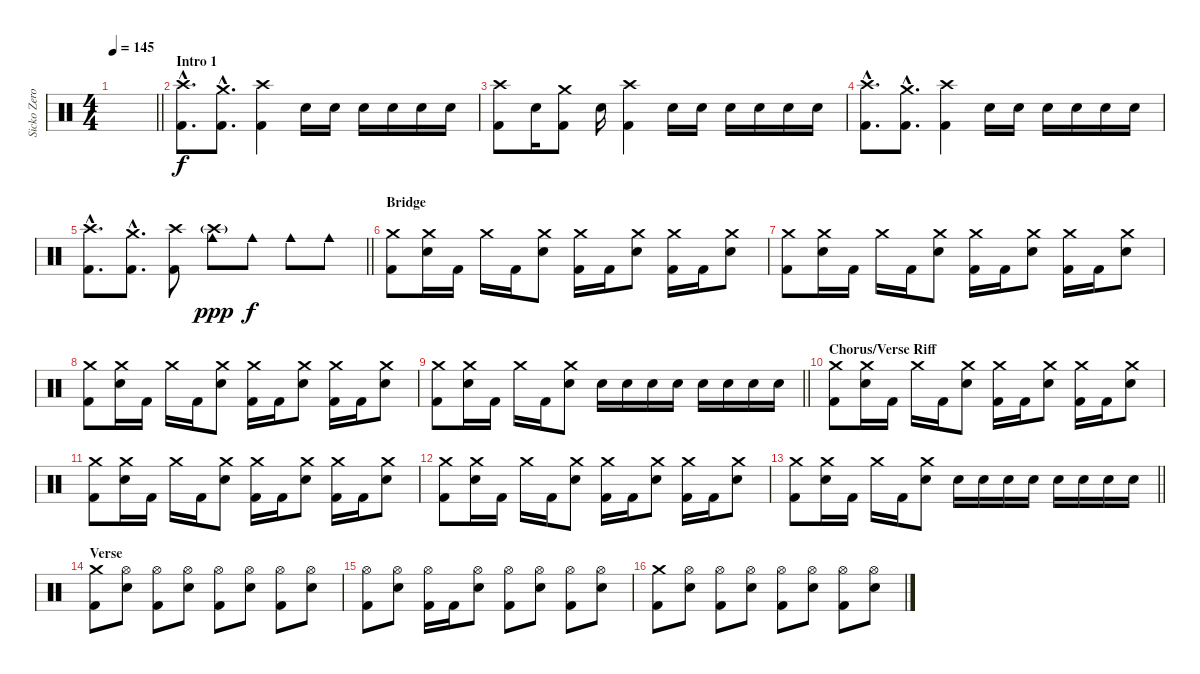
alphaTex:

\track ("Sicko Zero - Drums" "Sicko Zero") {instrument percussion}
\staff {score}
\articulation defaults
\ts (4 4)
\tempo 145
\clef neutral
\barLineRight lightlight
\ks c
|
\section ("" "Intro 1")
("Crash high (hit)"{hac} "Kick (hit) 2"{hac}).8{d} ("Crash medium (hit)"{hac} "Kick (hit) 2"{hac}).8{d} ("Crash high (hit)" "Kick (hit) 2").4 "Electric Snare (hit)".16 "Electric Snare (hit)".16 "Electric Snare (hit)".16 "Electric Snare (hit)".16 "Electric Snare (hit)".16 "Electric Snare (hit)".16 |
("Crash high (hit)" "Kick (hit) 2").8 "Electric Snare (hit)".16 ("Crash medium (hit)" "Kick (hit) 2").8 "Electric Snare (hit)".16 ("Crash high (hit)" "Kick (hit) 2").4 "Electric Snare (hit)".16 "Electric Snare (hit)".16 "Electric Snare (hit)".16 "Electric Snare (hit)".16 "Electric Snare (hit)".16 "Electric Snare (hit)".16 |
("Crash high (hit)"{hac} "Kick (hit) 2"{hac}).8{d} ("Crash medium (hit)"{hac} "Kick (hit) 2"{hac}).8{d} ("Crash high (hit)" "Kick (hit) 2").4 "Electric Snare (hit)".16 "Electric Snare (hit)".16 "Electric Snare (hit)".16 "Electric Snare (hit)".16 "Electric Snare (hit)".16 "Electric Snare (hit)".16 |
\barLineRight lightlight
("Crash high (hit)"{hac} "Kick (hit) 2"{hac}).8{d} ("Crash medium (hit)"{hac} "Kick (hit) 2"{hac}).8{d} ("Crash high (hit)" "Kick (hit) 2").8 ("Crash high (hit)"{g} "Cowbell medium (hit)").8{dy ppp} "Cowbell medium (hit)".8{dy f} "Cowbell medium (hit)".8 "Cowbell medium (hit)".8 |
\section ("" "Bridge")
("Crash medium (hit)" "Kick (hit) 2").8 ("Crash medium (hit)" "Electric Snare (hit)").16 "Kick (hit) 2".16 "Crash medium (hit)".16 "Kick (hit) 2".16 ("Crash medium (hit)" "Electric Snare (hit)").8 ("Crash medium (hit)" "Kick (hit) 2").16 "Kick (hit) 2".16 ("Crash medium (hit)" "Electric Snare (hit)").8 ("Crash medium (hit)" "Kick (hit) 2").16 "Kick (hit) 2".16 ("Crash medium (hit)" "Electric Snare (hit)").8 |
("Crash medium (hit)" "Kick (hit) 2").8 ("Crash medium (hit)" "Electric Snare (hit)").16 "Kick (hit) 2".16 "Crash medium (hit)".16 "Kick (hit) 2".16 ("Crash medium (hit)" "Electric Snare (hit)").8 ("Crash medium (hit)" "Kick (hit) 2").16 "Kick (hit) 2".16 ("Crash medium (hit)" "Electric Snare (hit)").8 ("Crash medium (hit)" "Kick (hit) 2").16 "Kick (hit) 2".16 ("Crash medium (hit)" "Electric Snare (hit)").8 |
("Crash medium (hit)" "Kick (hit) 2").8 ("Crash medium (hit)" "Electric Snare (hit)").16 "Kick (hit) 2".16 "Crash medium (hit)".16 "Kick (hit) 2".16 ("Crash medium (hit)" "Electric Snare (hit)").8 ("Crash medium (hit)" "Kick (hit) 2").16 "Kick (hit) 2".16 ("Crash medium (hit)" "Electric Snare (hit)").8 ("Crash medium (hit)" "Kick (hit) 2").16 "Kick (hit) 2".16 ("Crash medium (hit)" "Electric Snare (hit)").8 |
\barLineRight lightlight
("Crash medium (hit)" "Kick (hit) 2").8 ("Crash medium (hit)" "Electric Snare (hit)").16 "Kick (hit) 2".16 "Crash medium (hit)".16 "Kick (hit) 2".16 ("Crash medium (hit)" "Electric Snare (hit)").8 "Electric Snare (hit)".16 "Electric Snare (hit)".16 "Electric Snare (hit)".16 "Electric Snare (hit)".16 "Electric Snare (hit)".16 "Electric Snare (hit)".16 "Electric Snare (hit)".16 "Electric Snare (hit)".16 |
\section ("" "Chorus/Verse Riff")
("Crash medium (hit)" "Kick (hit) 2").8 ("Crash medium (hit)" "Electric Snare (hit)").16 "Kick (hit) 2".16 "Crash medium (hit)".16 "Kick (hit) 2".16 ("Crash medium (hit)" "Electric Snare (hit)").8 ("Crash medium (hit)" "Kick (hit) 2").16 "Kick (hit) 2".16 ("Crash medium (hit)" "Electric Snare (hit)").8 ("Crash medium (hit)" "Kick (hit) 2").16 "Kick (hit) 2".16 ("Crash medium (hit)" "Electric Snare (hit)").8 |
("Crash medium (hit)" "Kick (hit) 2").8 ("Crash medium (hit)" "Electric Snare (hit)").16 "Kick (hit) 2".16 "Crash medium (hit)".16 "Kick (hit) 2".16 ("Crash medium (hit)" "Electric Snare (hit)").8 ("Crash medium (hit)" "Kick (hit) 2").16 "Kick (hit) 2".16 ("Crash medium (hit)" "Electric Snare (hit)").8 ("Crash medium (hit)" "Kick (hit) 2").16 "Kick (hit) 2".16 ("Crash medium (hit)" "Electric Snare (hit)").8 |
("Crash medium (hit)" "Kick (hit) 2").8 ("Crash medium (hit)" "Electric Snare (hit)").16 "Kick (hit) 2".16 "Crash medium (hit)".16 "Kick (hit) 2".16 ("Crash medium (hit)" "Electric Snare (hit)").8 ("Crash medium (hit)" "Kick (hit) 2").16 "Kick (hit) 2".16 ("Crash medium (hit)" "Electric Snare (hit)").8 ("Crash medium (hit)" "Kick (hit) 2").16 "Kick (hit) 2".16 ("Crash medium (hit)" "Electric Snare (hit)").8 |
\barLineRight lightlight
("Crash medium (hit)" "Kick (hit) 2").8 ("Crash medium (hit)" "Electric Snare (hit)").16 "Kick (hit) 2".16 "Crash medium (hit)".16 "Kick (hit) 2".16 ("Crash medium (hit)" "Electric Snare (hit)").8 "Electric Snare (hit)".16 "Electric Snare (hit)".16 "Electric Snare (hit)".16 "Electric Snare (hit)".16 "Electric Snare (hit)".16 "Electric Snare (hit)".16 "Electric Snare (hit)".16 "Electric Snare (hit)".16 |
\section ("" "Verse")
("Crash medium (hit)" "Kick (hit) 2").8 ("Hi-Hat (open)" "Electric Snare (hit)").8 ("Hi-Hat (open)" "Kick (hit) 2").8 ("Hi-Hat (open)" "Electric Snare (hit)").8 ("Hi-Hat (open)" "Kick (hit) 2").8 ("Hi-Hat (open)" "Electric Snare (hit)").8 ("Hi-Hat (open)" "Kick (hit) 2").8 ("Hi-Hat (open)" "Electric Snare (hit)").8 |
("Hi-Hat (open)" "Kick (hit) 2").8 ("Hi-Hat (open)" "Electric Snare (hit)").8 ("Hi-Hat (open)" "Kick (hit) 2").16 "Kick (hit) 2".16 ("Hi-Hat (open)" "Electric Snare (hit)").8 ("Hi-Hat (open)" "Kick (hit) 2").8 ("Hi-Hat (open)" "Electric Snare (hit)").8 ("Hi-Hat (open)" "Kick (hit) 2").8 ("Hi-Hat (open)" "Electric Snare (hit)").8 |
("Crash medium (hit)" "Kick (hit) 2").8 ("Hi-Hat (open)" "Electric Snare (hit)").8 ("Hi-Hat (open)" "Kick (hit) 2").8 ("Hi-Hat (open)" "Electric Snare (hit)").8 ("Hi-Hat (open)" "Kick (hit) 2").8 ("Hi-Hat (open)" "Electric Snare (hit)").8 ("Hi-Hat (open)" "Kick (hit) 2").8 ("Hi-Hat (open)" "Electric Snare (hit)").8
